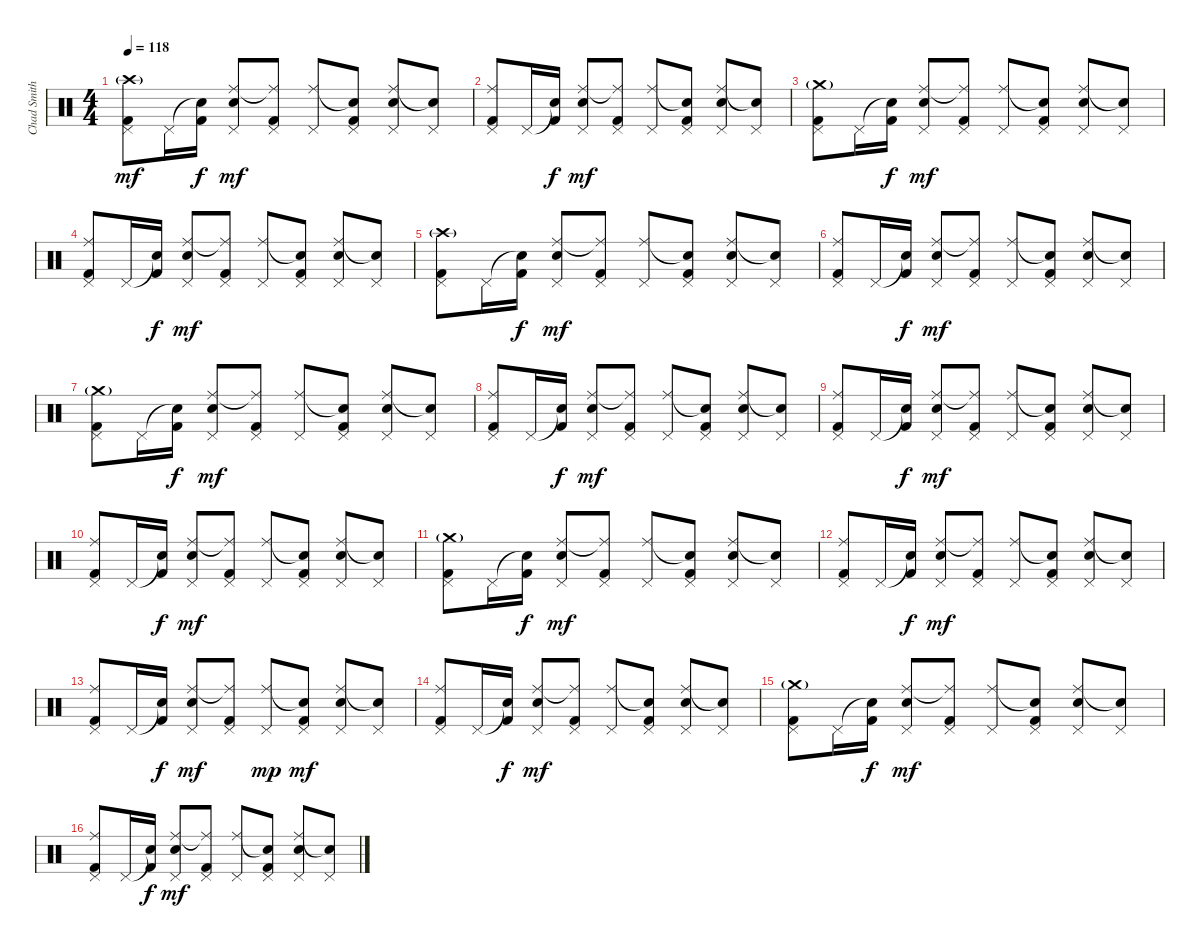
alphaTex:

\track ("Chad Smith" "Chad Smith") {instrument percussion}
\staff {score}
\articulation defaults
\ts (4 4)
\tempo 118
\clef neutral
\ks c
("Crash high (hit)"{g} "Pedal Hi-Hat (hit)" "Kick (hit) 2").8{dy mf} "Pedal Hi-Hat (hit)".16 ("Snare (hit)"{t} "Kick (hit) 2").16{dy f} ("Ride (middle)" "Pedal Hi-Hat (hit)" "Snare (hit) 2").8{dy mf} ("Ride (middle)"{t} "Pedal Hi-Hat (hit)" "Kick (hit) 2").8 ("Ride (middle)" "Pedal Hi-Hat (hit)").8 ("Snare (hit)"{t} "Pedal Hi-Hat (hit)" "Kick (hit) 2").8 ("Ride (middle)" "Pedal Hi-Hat (hit)" "Snare (hit) 2").8 ("Snare (hit)"{t} "Pedal Hi-Hat (hit)").8 |
("Ride (middle)" "Pedal Hi-Hat (hit)" "Kick (hit) 2").8 "Pedal Hi-Hat (hit)".16 ("Snare (hit)"{t} "Kick (hit) 2").16{dy f} ("Ride (middle)" "Pedal Hi-Hat (hit)" "Snare (hit) 2").8{dy mf} ("Ride (middle)"{t} "Pedal Hi-Hat (hit)" "Kick (hit) 2").8 ("Ride (middle)" "Pedal Hi-Hat (hit)").8 ("Snare (hit)"{t} "Pedal Hi-Hat (hit)" "Kick (hit) 2").8 ("Ride (middle)" "Pedal Hi-Hat (hit)" "Snare (hit) 2").8 ("Snare (hit)"{t} "Pedal Hi-Hat (hit)").8 |
("Crash medium (hit)"{g} "Pedal Hi-Hat (hit)" "Kick (hit) 2").8 "Pedal Hi-Hat (hit)".16 ("Snare (hit)"{t} "Kick (hit) 2").16{dy f} ("Ride (middle)" "Pedal Hi-Hat (hit)" "Snare (hit) 2").8{dy mf} ("Ride (middle)"{t} "Pedal Hi-Hat (hit)" "Kick (hit) 2").8 ("Ride (middle)" "Pedal Hi-Hat (hit)").8 ("Snare (hit)"{t} "Pedal Hi-Hat (hit)" "Kick (hit) 2").8 ("Ride (middle)" "Pedal Hi-Hat (hit)" "Snare (hit) 2").8 ("Snare (hit)"{t} "Pedal Hi-Hat (hit)").8 |
("Ride (middle)" "Pedal Hi-Hat (hit)" "Kick (hit) 2").8 "Pedal Hi-Hat (hit)".16 ("Snare (hit)"{t} "Kick (hit) 2").16{dy f} ("Ride (middle)" "Pedal Hi-Hat (hit)" "Snare (hit) 2").8{dy mf} ("Ride (middle)"{t} "Pedal Hi-Hat (hit)" "Kick (hit) 2").8 ("Ride (middle)" "Pedal Hi-Hat (hit)").8 ("Snare (hit)"{t} "Pedal Hi-Hat (hit)" "Kick (hit) 2").8 ("Ride (middle)" "Pedal Hi-Hat (hit)" "Snare (hit) 2").8 ("Snare (hit)"{t} "Pedal Hi-Hat (hit)").8 |
("Crash high (hit)"{g} "Pedal Hi-Hat (hit)" "Kick (hit) 2").8 "Pedal Hi-Hat (hit)".16 ("Snare (hit)"{t} "Kick (hit) 2").16{dy f} ("Ride (middle)" "Pedal Hi-Hat (hit)" "Snare (hit) 2").8{dy mf} ("Ride (middle)"{t} "Pedal Hi-Hat (hit)" "Kick (hit) 2").8 ("Ride (middle)" "Pedal Hi-Hat (hit)").8 ("Snare (hit)"{t} "Pedal Hi-Hat (hit)" "Kick (hit) 2").8 ("Ride (middle)" "Pedal Hi-Hat (hit)" "Snare (hit) 2").8 ("Snare (hit)"{t} "Pedal Hi-Hat (hit)").8 |
("Ride (middle)" "Pedal Hi-Hat (hit)" "Kick (hit) 2").8 "Pedal Hi-Hat (hit)".16 ("Snare (hit)"{t} "Kick (hit) 2").16{dy f} ("Ride (middle)" "Pedal Hi-Hat (hit)" "Snare (hit) 2").8{dy mf} ("Ride (middle)"{t} "Pedal Hi-Hat (hit)" "Kick (hit) 2").8 ("Ride (middle)" "Pedal Hi-Hat (hit)").8 ("Snare (hit)"{t} "Pedal Hi-Hat (hit)" "Kick (hit) 2").8 ("Ride (middle)" "Pedal Hi-Hat (hit)" "Snare (hit) 2").8 ("Snare (hit)"{t} "Pedal Hi-Hat (hit)").8 |
("Crash medium (hit)"{g} "Pedal Hi-Hat (hit)" "Kick (hit) 2").8 "Pedal Hi-Hat (hit)".16 ("Snare (hit)"{t} "Kick (hit) 2").16{dy f} ("Ride (middle)" "Pedal Hi-Hat (hit)" "Snare (hit) 2").8{dy mf} ("Ride (middle)"{t} "Pedal Hi-Hat (hit)" "Kick (hit) 2").8 ("Ride (middle)" "Pedal Hi-Hat (hit)").8 ("Snare (hit)"{t} "Pedal Hi-Hat (hit)" "Kick (hit) 2").8 ("Ride (middle)" "Pedal Hi-Hat (hit)" "Snare (hit) 2").8 ("Snare (hit)"{t} "Pedal Hi-Hat (hit)").8 |
("Ride (middle)" "Pedal Hi-Hat (hit)" "Kick (hit) 2").8 "Pedal Hi-Hat (hit)".16 ("Snare (hit)"{t} "Kick (hit) 2").16{dy f} ("Ride (middle)" "Pedal Hi-Hat (hit)" "Snare (hit) 2").8{dy mf} ("Ride (middle)"{t} "Pedal Hi-Hat (hit)" "Kick (hit) 2").8 ("Ride (middle)" "Pedal Hi-Hat (hit)").8 ("Snare (hit)"{t} "Pedal Hi-Hat (hit)" "Kick (hit) 2").8 ("Ride (middle)" "Pedal Hi-Hat (hit)" "Snare (hit) 2").8 ("Snare (hit)"{t} "Pedal Hi-Hat (hit)").8 |
("Ride (middle)" "Pedal Hi-Hat (hit)" "Kick (hit) 2").8 "Pedal Hi-Hat (hit)".16 ("Snare (hit)"{t} "Kick (hit) 2").16{dy f} ("Ride (middle)" "Pedal Hi-Hat (hit)" "Snare (hit) 2").8{dy mf} ("Ride (middle)"{t} "Pedal Hi-Hat (hit)" "Kick (hit) 2").8 ("Ride (middle)" "Pedal Hi-Hat (hit)").8 ("Snare (hit)"{t} "Pedal Hi-Hat (hit)" "Kick (hit) 2").8 ("Ride (middle)" "Pedal Hi-Hat (hit)" "Snare (hit) 2").8 ("Snare (hit)"{t} "Pedal Hi-Hat (hit)").8 |
("Ride (middle)" "Pedal Hi-Hat (hit)" "Kick (hit) 2").8 "Pedal Hi-Hat (hit)".16 ("Snare (hit)"{t} "Kick (hit) 2").16{dy f} ("Ride (middle)" "Pedal Hi-Hat (hit)" "Snare (hit) 2").8{dy mf} ("Ride (middle)"{t} "Pedal Hi-Hat (hit)" "Kick (hit) 2").8 ("Ride (middle)" "Pedal Hi-Hat (hit)").8 ("Snare (hit)"{t} "Pedal Hi-Hat (hit)" "Kick (hit) 2").8 ("Ride (middle)" "Pedal Hi-Hat (hit)" "Snare (hit) 2").8 ("Snare (hit)"{t} "Pedal Hi-Hat (hit)").8 |
("Crash medium (hit)"{g} "Pedal Hi-Hat (hit)" "Kick (hit) 2").8 "Pedal Hi-Hat (hit)".16 ("Snare (hit)"{t} "Kick (hit) 2").16{dy f} ("Ride (middle)" "Pedal Hi-Hat (hit)" "Snare (hit) 2").8{dy mf} ("Ride (middle)"{t} "Pedal Hi-Hat (hit)" "Kick (hit) 2").8 ("Ride (middle)" "Pedal Hi-Hat (hit)").8 ("Snare (hit)"{t} "Pedal Hi-Hat (hit)" "Kick (hit) 2").8 ("Ride (middle)" "Pedal Hi-Hat (hit)" "Snare (hit) 2").8 ("Snare (hit)"{t} "Pedal Hi-Hat (hit)").8 |
("Ride (middle)" "Pedal Hi-Hat (hit)" "Kick (hit) 2").8 "Pedal Hi-Hat (hit)".16 ("Snare (hit)"{t} "Kick (hit) 2").16{dy f} ("Ride (middle)" "Pedal Hi-Hat (hit)" "Snare (hit) 2").8{dy mf} ("Ride (middle)"{t} "Pedal Hi-Hat (hit)" "Kick (hit) 2").8 ("Ride (middle)" "Pedal Hi-Hat (hit)").8 ("Snare (hit)"{t} "Pedal Hi-Hat (hit)" "Kick (hit) 2").8 ("Ride (middle)" "Pedal Hi-Hat (hit)" "Snare (hit) 2").8 ("Snare (hit)"{t} "Pedal Hi-Hat (hit)").8 |
("Ride (middle)" "Pedal Hi-Hat (hit)" "Kick (hit) 2").8 "Pedal Hi-Hat (hit)".16 ("Snare (hit)"{t} "Kick (hit) 2").16{dy f} ("Ride (middle)" "Pedal Hi-Hat (hit)" "Snare (hit) 2").8{dy mf} ("Ride (middle)"{t} "Pedal Hi-Hat (hit)" "Kick (hit) 2").8 ("Ride (middle)" "Pedal Hi-Hat (hit)").8{dy mp} ("Snare (hit)"{t} "Pedal Hi-Hat (hit)" "Kick (hit) 2").8{dy mf} ("Ride (middle)" "Pedal Hi-Hat (hit)" "Snare (hit) 2").8 ("Snare (hit)"{t} "Pedal Hi-Hat (hit)").8 |
("Ride (middle)" "Pedal Hi-Hat (hit)" "Kick (hit) 2").8 "Pedal Hi-Hat (hit)".16 ("Snare (hit)"{t} "Kick (hit) 2").16{dy f} ("Ride (middle)" "Pedal Hi-Hat (hit)" "Snare (hit) 2").8{dy mf} ("Ride (middle)"{t} "Pedal Hi-Hat (hit)" "Kick (hit) 2").8 ("Ride (middle)" "Pedal Hi-Hat (hit)").8 ("Snare (hit)"{t} "Pedal Hi-Hat (hit)" "Kick (hit) 2").8 ("Ride (middle)" "Pedal Hi-Hat (hit)" "Snare (hit) 2").8 ("Snare (hit)"{t} "Pedal Hi-Hat (hit)").8 |
("Crash medium (hit)"{g} "Pedal Hi-Hat (hit)" "Kick (hit) 2").8 "Pedal Hi-Hat (hit)".16 ("Snare (hit)"{t} "Kick (hit) 2").16{dy f} ("Ride (middle)" "Pedal Hi-Hat (hit)" "Snare (hit) 2").8{dy mf} ("Ride (middle)"{t} "Pedal Hi-Hat (hit)" "Kick (hit) 2").8 ("Ride (middle)" "Pedal Hi-Hat (hit)").8 ("Snare (hit)"{t} "Pedal Hi-Hat (hit)" "Kick (hit) 2").8 ("Ride (middle)" "Pedal Hi-Hat (hit)" "Snare (hit) 2").8 ("Snare (hit)"{t} "Pedal Hi-Hat (hit)").8 |
("Ride (middle)" "Pedal Hi-Hat (hit)" "Kick (hit) 2").8 "Pedal Hi-Hat (hit)".16 ("Snare (hit)"{t} "Kick (hit) 2").16{dy f} ("Ride (middle)" "Pedal Hi-Hat (hit)" "Snare (hit) 2").8{dy mf} ("Ride (middle)"{t} "Pedal Hi-Hat (hit)" "Kick (hit) 2").8 ("Ride (middle)" "Pedal Hi-Hat (hit)").8 ("Snare (hit)"{t} "Pedal Hi-Hat (hit)" "Kick (hit) 2").8 ("Ride (middle)" "Pedal Hi-Hat (hit)" "Snare (hit) 2").8 ("Snare (hit)"{t} "Pedal Hi-Hat (hit)").8
